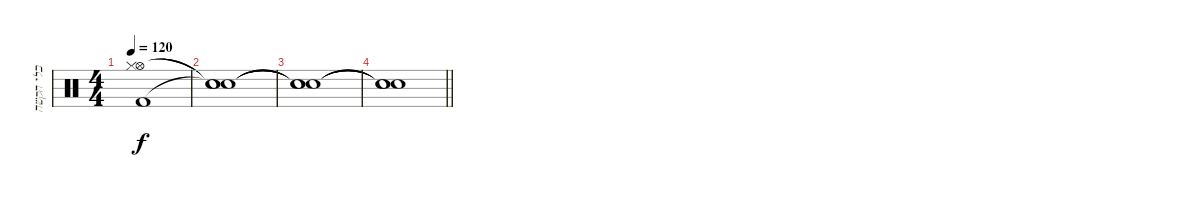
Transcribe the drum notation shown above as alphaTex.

\track ("כלי הקשה" "כלי הקשה") {instrument percussion}
\staff {score}
\articulation defaults
\ts (4 4)
\tempo 120
\clef neutral
\ks c
("Hi-Hat (open)"{t} "Hi-Hat (closed)"{t} "Kick (hit) 2"{t}).1{dy f} |
("Snare (hit)"{t} "Snare (hit)"{t} "Snare (hit)"{t}).1 |
("Snare (hit)"{t} "Snare (hit)"{t} "Snare (hit)"{t}).1 |
\barLineRight lightlight
("Snare (hit)"{t} "Snare (hit)"{t} "Snare (hit)"{t}).1
